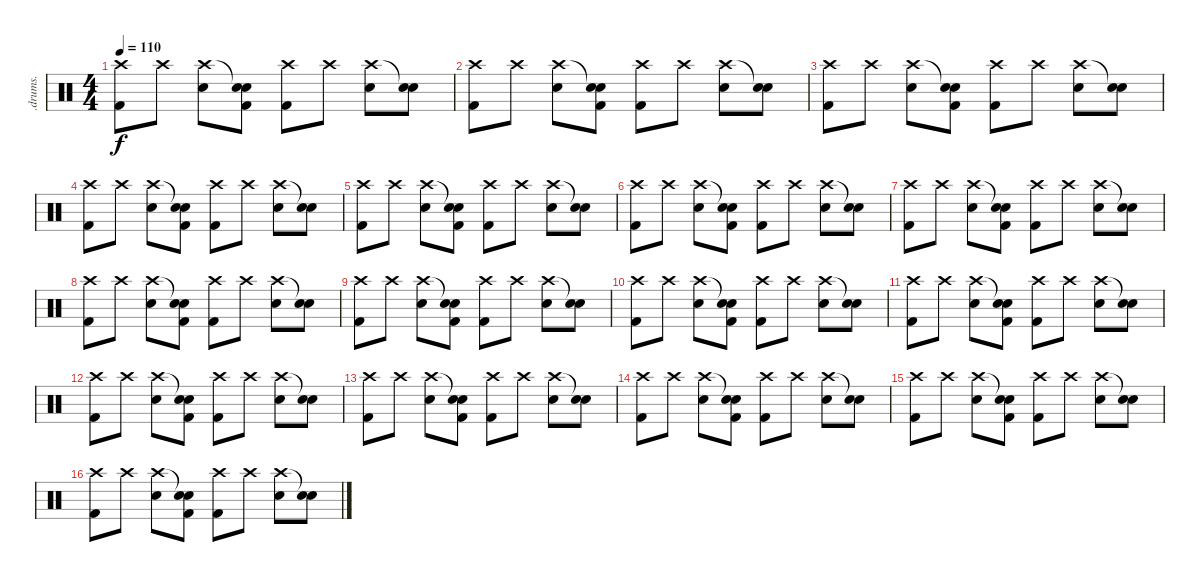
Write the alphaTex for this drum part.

\track (".drums." ".drums.") {instrument percussion}
\staff {score}
\articulation defaults
\ts (4 4)
\tempo 110
\clef neutral
\ks c
("Crash high (hit)" "Kick (hit) 2").8{dy f} "Crash high (hit)".8 ("Crash high (hit)" "Snare (hit) 2").8 ("Snare (hit)"{t} "Snare (hit) 2" "Kick (hit) 2").8 ("Crash high (hit)" "Kick (hit) 2").8 "Crash high (hit)".8 ("Crash high (hit)" "Snare (hit) 2").8 ("Snare (hit)"{t} "Snare (hit) 2").8 |
("Crash high (hit)" "Kick (hit) 2").8 "Crash high (hit)".8 ("Crash high (hit)" "Snare (hit) 2").8 ("Snare (hit)"{t} "Snare (hit) 2" "Kick (hit) 2").8 ("Crash high (hit)" "Kick (hit) 2").8 "Crash high (hit)".8 ("Crash high (hit)" "Snare (hit) 2").8 ("Snare (hit)"{t} "Snare (hit) 2").8 |
("Crash high (hit)" "Kick (hit) 2").8 "Crash high (hit)".8 ("Crash high (hit)" "Snare (hit) 2").8 ("Snare (hit)"{t} "Snare (hit) 2" "Kick (hit) 2").8 ("Crash high (hit)" "Kick (hit) 2").8 "Crash high (hit)".8 ("Crash high (hit)" "Snare (hit) 2").8 ("Snare (hit)"{t} "Snare (hit) 2").8 |
("Crash high (hit)" "Kick (hit) 2").8 "Crash high (hit)".8 ("Crash high (hit)" "Snare (hit) 2").8 ("Snare (hit)"{t} "Snare (hit) 2" "Kick (hit) 2").8 ("Crash high (hit)" "Kick (hit) 2").8 "Crash high (hit)".8 ("Crash high (hit)" "Snare (hit) 2").8 ("Snare (hit)"{t} "Snare (hit) 2").8 |
("Crash high (hit)" "Kick (hit) 2").8 "Crash high (hit)".8 ("Crash high (hit)" "Snare (hit) 2").8 ("Snare (hit)"{t} "Snare (hit) 2" "Kick (hit) 2").8 ("Crash high (hit)" "Kick (hit) 2").8 "Crash high (hit)".8 ("Crash high (hit)" "Snare (hit) 2").8 ("Snare (hit)"{t} "Snare (hit) 2").8 |
("Crash high (hit)" "Kick (hit) 2").8 "Crash high (hit)".8 ("Crash high (hit)" "Snare (hit) 2").8 ("Snare (hit)"{t} "Snare (hit) 2" "Kick (hit) 2").8 ("Crash high (hit)" "Kick (hit) 2").8 "Crash high (hit)".8 ("Crash high (hit)" "Snare (hit) 2").8 ("Snare (hit)"{t} "Snare (hit) 2").8 |
("Crash high (hit)" "Kick (hit) 2").8 "Crash high (hit)".8 ("Crash high (hit)" "Snare (hit) 2").8 ("Snare (hit)"{t} "Snare (hit) 2" "Kick (hit) 2").8 ("Crash high (hit)" "Kick (hit) 2").8 "Crash high (hit)".8 ("Crash high (hit)" "Snare (hit) 2").8 ("Snare (hit)"{t} "Snare (hit) 2").8 |
("Crash high (hit)" "Kick (hit) 2").8 "Crash high (hit)".8 ("Crash high (hit)" "Snare (hit) 2").8 ("Snare (hit)"{t} "Snare (hit) 2" "Kick (hit) 2").8 ("Crash high (hit)" "Kick (hit) 2").8 "Crash high (hit)".8 ("Crash high (hit)" "Snare (hit) 2").8 ("Snare (hit)"{t} "Snare (hit) 2").8 |
("Crash high (hit)" "Kick (hit) 2").8 "Crash high (hit)".8 ("Crash high (hit)" "Snare (hit) 2").8 ("Snare (hit)"{t} "Snare (hit) 2" "Kick (hit) 2").8 ("Crash high (hit)" "Kick (hit) 2").8 "Crash high (hit)".8 ("Crash high (hit)" "Snare (hit) 2").8 ("Snare (hit)"{t} "Snare (hit) 2").8 |
("Crash high (hit)" "Kick (hit) 2").8 "Crash high (hit)".8 ("Crash high (hit)" "Snare (hit) 2").8 ("Snare (hit)"{t} "Snare (hit) 2" "Kick (hit) 2").8 ("Crash high (hit)" "Kick (hit) 2").8 "Crash high (hit)".8 ("Crash high (hit)" "Snare (hit) 2").8 ("Snare (hit)"{t} "Snare (hit) 2").8 |
("Crash high (hit)" "Kick (hit) 2").8 "Crash high (hit)".8 ("Crash high (hit)" "Snare (hit) 2").8 ("Snare (hit)"{t} "Snare (hit) 2" "Kick (hit) 2").8 ("Crash high (hit)" "Kick (hit) 2").8 "Crash high (hit)".8 ("Crash high (hit)" "Snare (hit) 2").8 ("Snare (hit)"{t} "Snare (hit) 2").8 |
("Crash high (hit)" "Kick (hit) 2").8 "Crash high (hit)".8 ("Crash high (hit)" "Snare (hit) 2").8 ("Snare (hit)"{t} "Snare (hit) 2" "Kick (hit) 2").8 ("Crash high (hit)" "Kick (hit) 2").8 "Crash high (hit)".8 ("Crash high (hit)" "Snare (hit) 2").8 ("Snare (hit)"{t} "Snare (hit) 2").8 |
("Crash high (hit)" "Kick (hit) 2").8 "Crash high (hit)".8 ("Crash high (hit)" "Snare (hit) 2").8 ("Snare (hit)"{t} "Snare (hit) 2" "Kick (hit) 2").8 ("Crash high (hit)" "Kick (hit) 2").8 "Crash high (hit)".8 ("Crash high (hit)" "Snare (hit) 2").8 ("Snare (hit)"{t} "Snare (hit) 2").8 |
("Crash high (hit)" "Kick (hit) 2").8 "Crash high (hit)".8 ("Crash high (hit)" "Snare (hit) 2").8 ("Snare (hit)"{t} "Snare (hit) 2" "Kick (hit) 2").8 ("Crash high (hit)" "Kick (hit) 2").8 "Crash high (hit)".8 ("Crash high (hit)" "Snare (hit) 2").8 ("Snare (hit)"{t} "Snare (hit) 2").8 |
("Crash high (hit)" "Kick (hit) 2").8 "Crash high (hit)".8 ("Crash high (hit)" "Snare (hit) 2").8 ("Snare (hit)"{t} "Snare (hit) 2" "Kick (hit) 2").8 ("Crash high (hit)" "Kick (hit) 2").8 "Crash high (hit)".8 ("Crash high (hit)" "Snare (hit) 2").8 ("Snare (hit)"{t} "Snare (hit) 2").8 |
("Crash high (hit)" "Kick (hit) 2").8 "Crash high (hit)".8 ("Crash high (hit)" "Snare (hit) 2").8 ("Snare (hit)"{t} "Snare (hit) 2" "Kick (hit) 2").8 ("Crash high (hit)" "Kick (hit) 2").8 "Crash high (hit)".8 ("Crash high (hit)" "Snare (hit) 2").8 ("Snare (hit)"{t} "Snare (hit) 2").8
